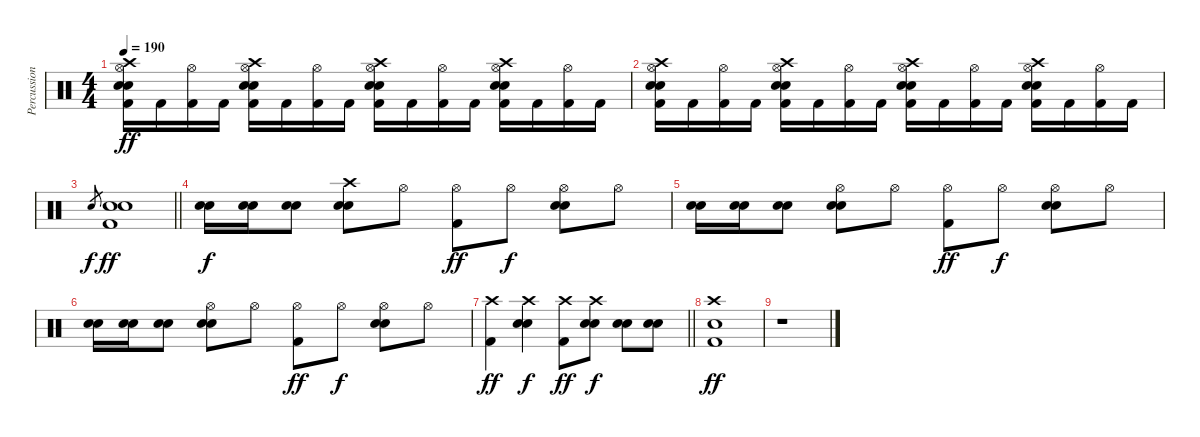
\track ("Percussion" "Percussion") {instrument percussion}
\staff {score}
\articulation defaults
\ts (4 4)
\tempo 190
\clef neutral
\ks c
("Crash high (hit)" "Hi-Hat (open)" "Electric Snare (hit)" "Snare (hit) 2" "Kick (hit) 2").16{dy ff} "Kick (hit) 2".16 ("Hi-Hat (open)" "Kick (hit) 2").16 "Kick (hit) 2".16 ("Crash high (hit)" "Hi-Hat (open)" "Electric Snare (hit)" "Snare (hit) 2" "Kick (hit) 2").16 "Kick (hit) 2".16 ("Hi-Hat (open)" "Kick (hit) 2").16 "Kick (hit) 2".16 ("Crash high (hit)" "Hi-Hat (open)" "Electric Snare (hit)" "Snare (hit) 2" "Kick (hit) 2").16 "Kick (hit) 2".16 ("Hi-Hat (open)" "Kick (hit) 2").16 "Kick (hit) 2".16 ("Crash high (hit)" "Hi-Hat (open)" "Electric Snare (hit)" "Snare (hit) 2" "Kick (hit) 2").16 "Kick (hit) 2".16 ("Hi-Hat (open)" "Kick (hit) 2").16 "Kick (hit) 2".16 |
("Crash high (hit)" "Hi-Hat (open)" "Electric Snare (hit)" "Snare (hit) 2" "Kick (hit) 2").16 "Kick (hit) 2".16 ("Hi-Hat (open)" "Kick (hit) 2").16 "Kick (hit) 2".16 ("Crash high (hit)" "Hi-Hat (open)" "Electric Snare (hit)" "Snare (hit) 2" "Kick (hit) 2").16 "Kick (hit) 2".16 ("Hi-Hat (open)" "Kick (hit) 2").16 "Kick (hit) 2".16 ("Crash high (hit)" "Hi-Hat (open)" "Electric Snare (hit)" "Snare (hit) 2" "Kick (hit) 2").16 "Kick (hit) 2".16 ("Hi-Hat (open)" "Kick (hit) 2").16 "Kick (hit) 2".16 ("Crash high (hit)" "Hi-Hat (open)" "Electric Snare (hit)" "Snare (hit) 2" "Kick (hit) 2").16 "Kick (hit) 2".16 ("Hi-Hat (open)" "Kick (hit) 2").16 "Kick (hit) 2".16 |
\barLineRight lightlight "Electric Snare (hit)".8{gr dy f}
("Electric Snare (hit)" "Snare (hit) 2" "Kick (hit) 2").1{dy ff} |
\section ("" "")
("Electric Snare (hit)" "Snare (hit) 2").16{dy f} ("Electric Snare (hit)" "Snare (hit) 2").16 ("Electric Snare (hit)" "Snare (hit) 2").8 ("Crash high (hit)" "Electric Snare (hit)" "Snare (hit) 2").8 "Hi-Hat (open)".8 ("Hi-Hat (open)" "Kick (hit) 2").8{dy ff} "Hi-Hat (open)".8{dy f} ("Hi-Hat (open)" "Electric Snare (hit)" "Snare (hit) 2").8 "Hi-Hat (open)".8 |
("Electric Snare (hit)" "Snare (hit) 2").16 ("Electric Snare (hit)" "Snare (hit) 2").16 ("Electric Snare (hit)" "Snare (hit) 2").8 ("Hi-Hat (open)" "Electric Snare (hit)" "Snare (hit) 2").8 "Hi-Hat (open)".8 ("Hi-Hat (open)" "Kick (hit) 2").8{dy ff} "Hi-Hat (open)".8{dy f} ("Hi-Hat (open)" "Electric Snare (hit)" "Snare (hit) 2").8 "Hi-Hat (open)".8 |
("Electric Snare (hit)" "Snare (hit) 2").16 ("Electric Snare (hit)" "Snare (hit) 2").16 ("Electric Snare (hit)" "Snare (hit) 2").8 ("Hi-Hat (open)" "Electric Snare (hit)" "Snare (hit) 2").8 "Hi-Hat (open)".8 ("Hi-Hat (open)" "Kick (hit) 2").8{dy ff} "Hi-Hat (open)".8{dy f} ("Hi-Hat (open)" "Electric Snare (hit)" "Snare (hit) 2").8 "Hi-Hat (open)".8 |
\barLineRight lightlight
("Crash high (hit)" "Kick (hit) 2").4{dy ff} ("Crash high (hit)" "Electric Snare (hit)" "Snare (hit) 2").4{dy f} ("Crash high (hit)" "Kick (hit) 2").8{dy ff} ("Crash high (hit)" "Electric Snare (hit)" "Snare (hit) 2").8{dy f} ("Electric Snare (hit)" "Snare (hit) 2").8 ("Electric Snare (hit)" "Snare (hit) 2").8 |
("Crash high (hit)" "Snare (hit) 2" "Kick (hit) 2").1{dy ff} |
r.1
